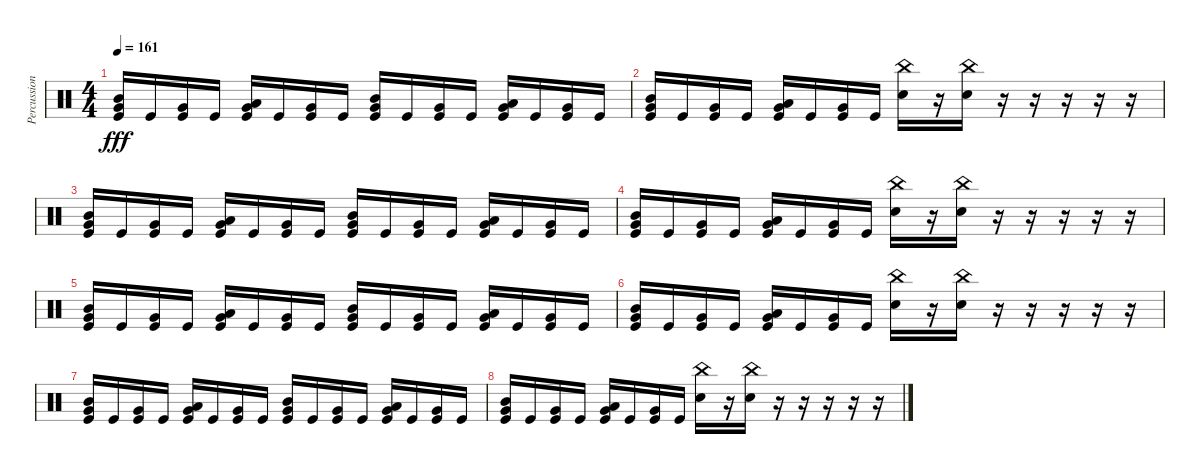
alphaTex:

\track ("Percussion" "Percussion") {instrument percussion}
\staff {score}
\articulation defaults
\ts (4 4)
\tempo 161
\clef neutral
\ks c
("Very Low Tom (hit)" "Mid Tom (hit)" "Kick (hit)").16{dy fff} "Kick (hit)".16 ("Very Low Tom (hit)" "Kick (hit)").16 "Kick (hit)".16 ("Very Low Tom (hit)" "Low Tom (hit)" "Kick (hit)").16 "Kick (hit)".16 ("Very Low Tom (hit)" "Kick (hit)").16 "Kick (hit)".16 ("Very Low Tom (hit)" "Mid Tom (hit)" "Kick (hit)").16 "Kick (hit)".16 ("Very Low Tom (hit)" "Kick (hit)").16 "Kick (hit)".16 ("Very Low Tom (hit)" "Low Tom (hit)" "Kick (hit)").16 "Kick (hit)".16 ("Very Low Tom (hit)" "Kick (hit)").16 "Kick (hit)".16 |
("Very Low Tom (hit)" "Mid Tom (hit)" "Kick (hit)").16 "Kick (hit)".16 ("Very Low Tom (hit)" "Kick (hit)").16 "Kick (hit)".16 ("Very Low Tom (hit)" "Low Tom (hit)" "Kick (hit)").16 "Kick (hit)".16 ("Very Low Tom (hit)" "Kick (hit)").16 "Kick (hit)".16 ("China (hit)" "Electric Snare (hit)").16 r.16 ("China (hit)" "Electric Snare (hit)").16 r.16 r.16 r.16 r.16 r.16 |
("Very Low Tom (hit)" "Mid Tom (hit)" "Kick (hit)").16 "Kick (hit)".16 ("Very Low Tom (hit)" "Kick (hit)").16 "Kick (hit)".16 ("Very Low Tom (hit)" "Low Tom (hit)" "Kick (hit)").16 "Kick (hit)".16 ("Very Low Tom (hit)" "Kick (hit)").16 "Kick (hit)".16 ("Very Low Tom (hit)" "Mid Tom (hit)" "Kick (hit)").16 "Kick (hit)".16 ("Very Low Tom (hit)" "Kick (hit)").16 "Kick (hit)".16 ("Very Low Tom (hit)" "Low Tom (hit)" "Kick (hit)").16 "Kick (hit)".16 ("Very Low Tom (hit)" "Kick (hit)").16 "Kick (hit)".16 |
("Very Low Tom (hit)" "Mid Tom (hit)" "Kick (hit)").16 "Kick (hit)".16 ("Very Low Tom (hit)" "Kick (hit)").16 "Kick (hit)".16 ("Very Low Tom (hit)" "Low Tom (hit)" "Kick (hit)").16 "Kick (hit)".16 ("Very Low Tom (hit)" "Kick (hit)").16 "Kick (hit)".16 ("China (hit)" "Electric Snare (hit)").16 r.16 ("China (hit)" "Electric Snare (hit)").16 r.16 r.16 r.16 r.16 r.16 |
("Very Low Tom (hit)" "Mid Tom (hit)" "Kick (hit)").16 "Kick (hit)".16 ("Very Low Tom (hit)" "Kick (hit)").16 "Kick (hit)".16 ("Very Low Tom (hit)" "Low Tom (hit)" "Kick (hit)").16 "Kick (hit)".16 ("Very Low Tom (hit)" "Kick (hit)").16 "Kick (hit)".16 ("Very Low Tom (hit)" "Mid Tom (hit)" "Kick (hit)").16 "Kick (hit)".16 ("Very Low Tom (hit)" "Kick (hit)").16 "Kick (hit)".16 ("Very Low Tom (hit)" "Low Tom (hit)" "Kick (hit)").16 "Kick (hit)".16 ("Very Low Tom (hit)" "Kick (hit)").16 "Kick (hit)".16 |
("Very Low Tom (hit)" "Mid Tom (hit)" "Kick (hit)").16 "Kick (hit)".16 ("Very Low Tom (hit)" "Kick (hit)").16 "Kick (hit)".16 ("Very Low Tom (hit)" "Low Tom (hit)" "Kick (hit)").16 "Kick (hit)".16 ("Very Low Tom (hit)" "Kick (hit)").16 "Kick (hit)".16 ("China (hit)" "Electric Snare (hit)").16 r.16 ("China (hit)" "Electric Snare (hit)").16 r.16 r.16 r.16 r.16 r.16 |
("Very Low Tom (hit)" "Mid Tom (hit)" "Kick (hit)").16 "Kick (hit)".16 ("Very Low Tom (hit)" "Kick (hit)").16 "Kick (hit)".16 ("Very Low Tom (hit)" "Low Tom (hit)" "Kick (hit)").16 "Kick (hit)".16 ("Very Low Tom (hit)" "Kick (hit)").16 "Kick (hit)".16 ("Very Low Tom (hit)" "Mid Tom (hit)" "Kick (hit)").16 "Kick (hit)".16 ("Very Low Tom (hit)" "Kick (hit)").16 "Kick (hit)".16 ("Very Low Tom (hit)" "Low Tom (hit)" "Kick (hit)").16 "Kick (hit)".16 ("Very Low Tom (hit)" "Kick (hit)").16 "Kick (hit)".16 |
("Very Low Tom (hit)" "Mid Tom (hit)" "Kick (hit)").16 "Kick (hit)".16 ("Very Low Tom (hit)" "Kick (hit)").16 "Kick (hit)".16 ("Very Low Tom (hit)" "Low Tom (hit)" "Kick (hit)").16 "Kick (hit)".16 ("Very Low Tom (hit)" "Kick (hit)").16 "Kick (hit)".16 ("China (hit)" "Electric Snare (hit)").16 r.16 ("China (hit)" "Electric Snare (hit)").16 r.16 r.16 r.16 r.16 r.16
